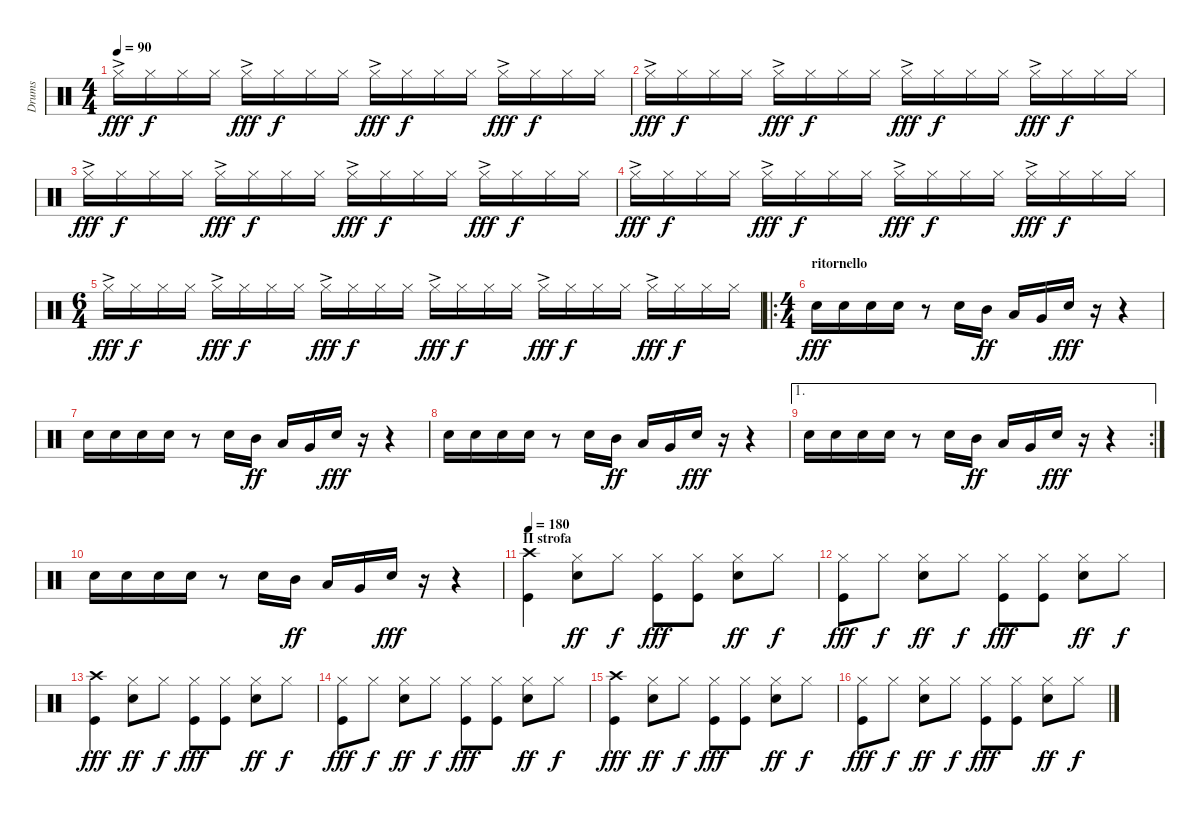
\track ("Drums" "Drums") {instrument percussion}
\staff {score}
\articulation defaults
\ts (4 4)
\tempo 90
\clef neutral
\ks aminor "Hi-Hat (closed)"{ac}.16{dy fff} "Hi-Hat (closed)".16{dy f} "Hi-Hat (closed)".16 "Hi-Hat (closed)".16 "Hi-Hat (closed)"{ac}.16{dy fff} "Hi-Hat (closed)".16{dy f} "Hi-Hat (closed)".16 "Hi-Hat (closed)".16 "Hi-Hat (closed)"{ac}.16{dy fff} "Hi-Hat (closed)".16{dy f} "Hi-Hat (closed)".16 "Hi-Hat (closed)".16 "Hi-Hat (closed)"{ac}.16{dy fff} "Hi-Hat (closed)".16{dy f} "Hi-Hat (closed)".16 "Hi-Hat (closed)".16
|
"Hi-Hat (closed)"{ac}.16{dy fff} "Hi-Hat (closed)".16{dy f} "Hi-Hat (closed)".16 "Hi-Hat (closed)".16 "Hi-Hat (closed)"{ac}.16{dy fff} "Hi-Hat (closed)".16{dy f} "Hi-Hat (closed)".16 "Hi-Hat (closed)".16 "Hi-Hat (closed)"{ac}.16{dy fff} "Hi-Hat (closed)".16{dy f} "Hi-Hat (closed)".16 "Hi-Hat (closed)".16 "Hi-Hat (closed)"{ac}.16{dy fff} "Hi-Hat (closed)".16{dy f} "Hi-Hat (closed)".16 "Hi-Hat (closed)".16 |
"Hi-Hat (closed)"{ac}.16{dy fff} "Hi-Hat (closed)".16{dy f} "Hi-Hat (closed)".16 "Hi-Hat (closed)".16 "Hi-Hat (closed)"{ac}.16{dy fff} "Hi-Hat (closed)".16{dy f} "Hi-Hat (closed)".16 "Hi-Hat (closed)".16 "Hi-Hat (closed)"{ac}.16{dy fff} "Hi-Hat (closed)".16{dy f} "Hi-Hat (closed)".16 "Hi-Hat (closed)".16 "Hi-Hat (closed)"{ac}.16{dy fff} "Hi-Hat (closed)".16{dy f} "Hi-Hat (closed)".16 "Hi-Hat (closed)".16 |
"Hi-Hat (closed)"{ac}.16{dy fff} "Hi-Hat (closed)".16{dy f} "Hi-Hat (closed)".16 "Hi-Hat (closed)".16 "Hi-Hat (closed)"{ac}.16{dy fff} "Hi-Hat (closed)".16{dy f} "Hi-Hat (closed)".16 "Hi-Hat (closed)".16 "Hi-Hat (closed)"{ac}.16{dy fff} "Hi-Hat (closed)".16{dy f} "Hi-Hat (closed)".16 "Hi-Hat (closed)".16 "Hi-Hat (closed)"{ac}.16{dy fff} "Hi-Hat (closed)".16{dy f} "Hi-Hat (closed)".16 "Hi-Hat (closed)".16 |
\ts (6 4)
"Hi-Hat (closed)"{ac}.16{dy fff} "Hi-Hat (closed)".16{dy f} "Hi-Hat (closed)".16 "Hi-Hat (closed)".16 "Hi-Hat (closed)"{ac}.16{dy fff} "Hi-Hat (closed)".16{dy f} "Hi-Hat (closed)".16 "Hi-Hat (closed)".16 "Hi-Hat (closed)"{ac}.16{dy fff} "Hi-Hat (closed)".16{dy f} "Hi-Hat (closed)".16 "Hi-Hat (closed)".16 "Hi-Hat (closed)"{ac}.16{dy fff} "Hi-Hat (closed)".16{dy f} "Hi-Hat (closed)".16 "Hi-Hat (closed)".16 "Hi-Hat (closed)"{ac}.16{dy fff} "Hi-Hat (closed)".16{dy f} "Hi-Hat (closed)".16 "Hi-Hat (closed)".16 "Hi-Hat (closed)"{ac}.16{dy fff} "Hi-Hat (closed)".16{dy f} "Hi-Hat (closed)".16 "Hi-Hat (closed)".16 |
\ro
\ts (4 4)
\section ("" "ritornello")
"Snare (hit) 2".16{dy fff} "Snare (hit) 2".16 "Snare (hit) 2".16 "Snare (hit) 2".16 r.8 "Snare (hit) 2".16 "Mid Tom (hit)".16{dy ff} "Low Tom (hit)".16 "Very Low Tom (hit)".16 "Snare (hit) 2".16{dy fff} r.16 r.4 |
"Snare (hit) 2".16 "Snare (hit) 2".16 "Snare (hit) 2".16 "Snare (hit) 2".16 r.8 "Snare (hit) 2".16 "Mid Tom (hit)".16{dy ff} "Low Tom (hit)".16 "Very Low Tom (hit)".16 "Snare (hit) 2".16{dy fff} r.16 r.4 |
"Snare (hit) 2".16 "Snare (hit) 2".16 "Snare (hit) 2".16 "Snare (hit) 2".16 r.8 "Snare (hit) 2".16 "Mid Tom (hit)".16{dy ff} "Low Tom (hit)".16 "Very Low Tom (hit)".16 "Snare (hit) 2".16{dy fff} r.16 r.4 |
\ae 1
\rc 2 "Snare (hit) 2".16 "Snare (hit) 2".16 "Snare (hit) 2".16 "Snare (hit) 2".16
r.8 "Snare (hit) 2".16 "Mid Tom (hit)".16{dy ff} "Low Tom (hit)".16 "Very Low Tom (hit)".16 "Snare (hit) 2".16{dy fff} r.16 r.4 |
"Snare (hit) 2".16 "Snare (hit) 2".16 "Snare (hit) 2".16 "Snare (hit) 2".16 r.8 "Snare (hit) 2".16 "Mid Tom (hit)".16{dy ff} "Low Tom (hit)".16 "Very Low Tom (hit)".16 "Snare (hit) 2".16{dy fff} r.16 r.4 |
\section ("" "II strofa")
\tempo 180
("Crash high (hit)" "Kick (hit)").4 ("Hi-Hat (closed)" "Snare (hit) 2").8{dy ff} "Hi-Hat (closed)".8{dy f} ("Hi-Hat (closed)" "Kick (hit)").8{dy fff} ("Hi-Hat (closed)" "Kick (hit)").8 ("Hi-Hat (closed)" "Snare (hit) 2").8{dy ff} "Hi-Hat (closed)".8{dy f} |
("Hi-Hat (closed)" "Kick (hit)").8{dy fff} "Hi-Hat (closed)".8{dy f} ("Hi-Hat (closed)" "Snare (hit) 2").8{dy ff} "Hi-Hat (closed)".8{dy f} ("Hi-Hat (closed)" "Kick (hit)").8{dy fff} ("Hi-Hat (closed)" "Kick (hit)").8 ("Hi-Hat (closed)" "Snare (hit) 2").8{dy ff} "Hi-Hat (closed)".8{dy f} |
("Crash high (hit)" "Kick (hit)").4{dy fff} ("Hi-Hat (closed)" "Snare (hit) 2").8{dy ff} "Hi-Hat (closed)".8{dy f} ("Hi-Hat (closed)" "Kick (hit)").8{dy fff} ("Hi-Hat (closed)" "Kick (hit)").8 ("Hi-Hat (closed)" "Snare (hit) 2").8{dy ff} "Hi-Hat (closed)".8{dy f} |
("Hi-Hat (closed)" "Kick (hit)").8{dy fff} "Hi-Hat (closed)".8{dy f} ("Hi-Hat (closed)" "Snare (hit) 2").8{dy ff} "Hi-Hat (closed)".8{dy f} ("Hi-Hat (closed)" "Kick (hit)").8{dy fff} ("Hi-Hat (closed)" "Kick (hit)").8 ("Hi-Hat (closed)" "Snare (hit) 2").8{dy ff} "Hi-Hat (closed)".8{dy f} |
("Crash high (hit)" "Kick (hit)").4{dy fff} ("Hi-Hat (closed)" "Snare (hit) 2").8{dy ff} "Hi-Hat (closed)".8{dy f} ("Hi-Hat (closed)" "Kick (hit)").8{dy fff} ("Hi-Hat (closed)" "Kick (hit)").8 ("Hi-Hat (closed)" "Snare (hit) 2").8{dy ff} "Hi-Hat (closed)".8{dy f} |
("Hi-Hat (closed)" "Kick (hit)").8{dy fff} "Hi-Hat (closed)".8{dy f} ("Hi-Hat (closed)" "Snare (hit) 2").8{dy ff} "Hi-Hat (closed)".8{dy f} ("Hi-Hat (closed)" "Kick (hit)").8{dy fff} ("Hi-Hat (closed)" "Kick (hit)").8 ("Hi-Hat (closed)" "Snare (hit) 2").8{dy ff} "Hi-Hat (closed)".8{dy f}
